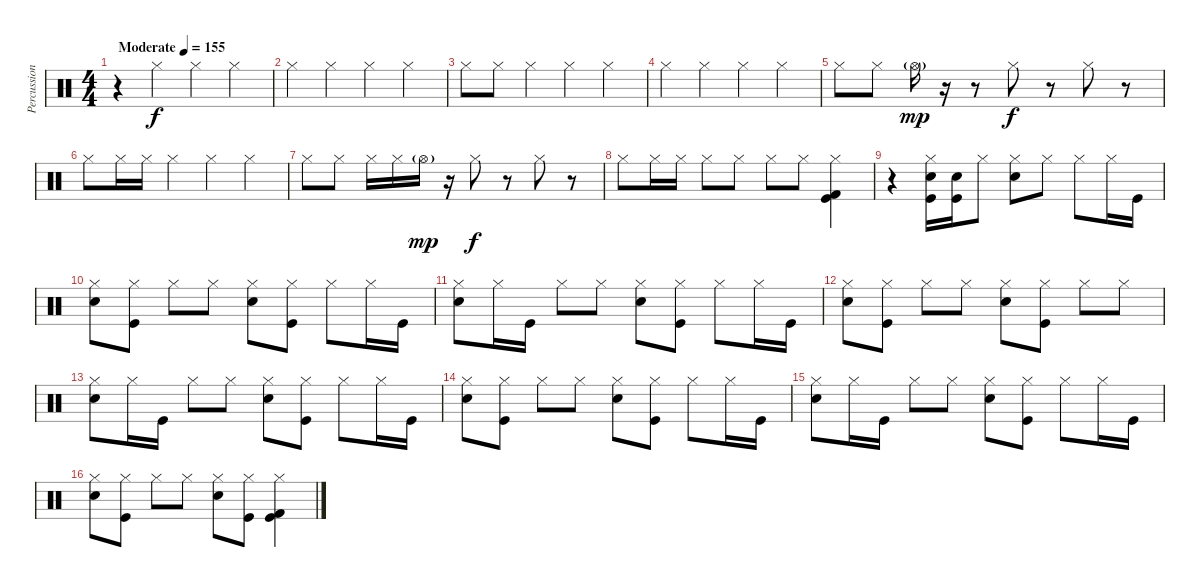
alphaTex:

\track ("Percussion" "Percussion") {instrument percussion}
\staff {score}
\articulation defaults
\ts (4 4)
\tempo (155 "Moderate")
\clef neutral
\ks c
r.4{dy f} "Hi-Hat (closed)".4 "Hi-Hat (closed)".4 "Hi-Hat (closed)".4 |
"Hi-Hat (closed)".4 "Hi-Hat (closed)".4 "Hi-Hat (closed)".4 "Hi-Hat (closed)".4 |
"Hi-Hat (closed)".8 "Hi-Hat (closed)".8 "Hi-Hat (closed)".4 "Hi-Hat (closed)".4 "Hi-Hat (closed)".4 |
"Hi-Hat (closed)".4 "Hi-Hat (closed)".4 "Hi-Hat (closed)".4 "Hi-Hat (closed)".4 |
"Hi-Hat (closed)".8 "Hi-Hat (closed)".8 "Hi-Hat (open)"{g}.16{dy mp} r.16 r.8 "Hi-Hat (closed)".8{dy f} r.8 "Hi-Hat (closed)".8 r.8 |
"Hi-Hat (closed)".8 "Hi-Hat (closed)".16 "Hi-Hat (closed)".16 "Hi-Hat (closed)".4 "Hi-Hat (closed)".4 "Hi-Hat (closed)".4 |
"Hi-Hat (closed)".8 "Hi-Hat (closed)".8 "Hi-Hat (closed)".16 "Hi-Hat (closed)".16 "Hi-Hat (open)"{g}.16{dy mp} r.16 "Hi-Hat (closed)".8{dy f} r.8 "Hi-Hat (closed)".8 r.8 |
"Hi-Hat (closed)".8 "Hi-Hat (closed)".16 "Hi-Hat (closed)".16 "Hi-Hat (closed)".8 "Hi-Hat (closed)".8 "Hi-Hat (closed)".8 "Hi-Hat (closed)".8 ("Hi-Hat (closed)" "Kick (hit) 2" "Kick (hit)").4 |
r.4 ("Hi-Hat (closed)" "Snare (hit) 2" "Kick (hit)").16 ("Snare (hit) 2" "Kick (hit)").16 "Hi-Hat (closed)".8 ("Hi-Hat (closed)" "Snare (hit) 2").8 "Hi-Hat (closed)".8 "Hi-Hat (closed)".8 "Hi-Hat (closed)".16 "Kick (hit)".16 |
("Hi-Hat (closed)" "Snare (hit) 2").8 ("Hi-Hat (closed)" "Kick (hit)").8 "Hi-Hat (closed)".8 "Hi-Hat (closed)".8 ("Hi-Hat (closed)" "Snare (hit) 2").8 ("Hi-Hat (closed)" "Kick (hit)").8 "Hi-Hat (closed)".8 "Hi-Hat (closed)".16 "Kick (hit)".16 |
("Hi-Hat (closed)" "Snare (hit) 2").8 "Hi-Hat (closed)".16 "Kick (hit)".16 "Hi-Hat (closed)".8 "Hi-Hat (closed)".8 ("Hi-Hat (closed)" "Snare (hit) 2").8 ("Hi-Hat (closed)" "Kick (hit)").8 "Hi-Hat (closed)".8 "Hi-Hat (closed)".16 "Kick (hit)".16 |
("Hi-Hat (closed)" "Snare (hit) 2").8 ("Hi-Hat (closed)" "Kick (hit)").8 "Hi-Hat (closed)".8 "Hi-Hat (closed)".8 ("Hi-Hat (closed)" "Snare (hit) 2").8 ("Hi-Hat (closed)" "Kick (hit)").8 "Hi-Hat (closed)".8 "Hi-Hat (closed)".8 |
("Hi-Hat (closed)" "Snare (hit) 2").8 "Hi-Hat (closed)".16 "Kick (hit)".16 "Hi-Hat (closed)".8 "Hi-Hat (closed)".8 ("Hi-Hat (closed)" "Snare (hit) 2").8 ("Hi-Hat (closed)" "Kick (hit)").8 "Hi-Hat (closed)".8 "Hi-Hat (closed)".16 "Kick (hit)".16 |
("Hi-Hat (closed)" "Snare (hit) 2").8 ("Hi-Hat (closed)" "Kick (hit)").8 "Hi-Hat (closed)".8 "Hi-Hat (closed)".8 ("Hi-Hat (closed)" "Snare (hit) 2").8 ("Hi-Hat (closed)" "Kick (hit)").8 "Hi-Hat (closed)".8 "Hi-Hat (closed)".16 "Kick (hit)".16 |
("Hi-Hat (closed)" "Snare (hit) 2").8 "Hi-Hat (closed)".16 "Kick (hit)".16 "Hi-Hat (closed)".8 "Hi-Hat (closed)".8 ("Hi-Hat (closed)" "Snare (hit) 2").8 ("Hi-Hat (closed)" "Kick (hit)").8 "Hi-Hat (closed)".8 "Hi-Hat (closed)".16 "Kick (hit)".16 |
("Hi-Hat (closed)" "Snare (hit) 2").8 ("Hi-Hat (closed)" "Kick (hit)").8 "Hi-Hat (closed)".8 "Hi-Hat (closed)".8 ("Hi-Hat (closed)" "Snare (hit) 2").8 ("Hi-Hat (closed)" "Kick (hit)").8 ("Hi-Hat (closed)" "Kick (hit) 2" "Kick (hit)").4
